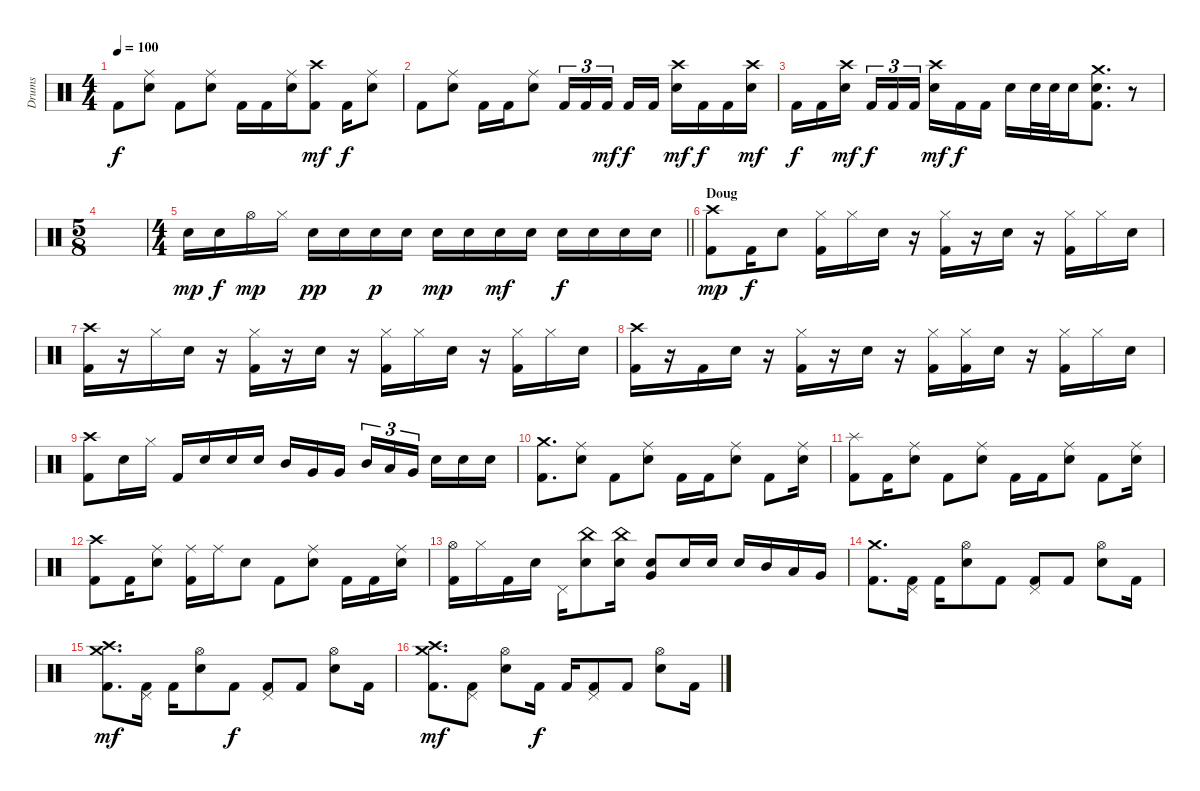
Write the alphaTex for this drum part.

\track ("Drums" "Drums") {instrument percussion}
\staff {score}
\articulation defaults
\ts (4 4)
\tempo 100
\clef neutral
\ks c "Kick (hit) 2".8{dy f}
("Ride (middle)" "Snare (hit) 2").8 "Kick (hit) 2".8 ("Ride (middle)" "Snare (hit) 2").8 "Kick (hit) 2".16 "Kick (hit) 2".16 ("Ride (middle)" "Snare (hit) 2").16 ("Crash high (hit)" "Kick (hit) 2").8{dy mf} "Kick (hit) 2".16{dy f} ("Ride (middle)" "Snare (hit) 2").8 |
"Kick (hit) 2".8 ("Ride (middle)" "Snare (hit) 2").8 "Kick (hit) 2".16 "Kick (hit) 2".16 ("Ride (middle)" "Snare (hit) 2").8 "Kick (hit) 2".16{tu (3 2)} "Kick (hit) 2".16{tu (3 2)} "Kick (hit) 2".16{tu (3 2) dy mf beam splitsecondary} "Kick (hit) 2".16{dy f} "Kick (hit) 2".16 ("Crash high (hit)" "Snare (hit) 2").16{dy mf} "Kick (hit) 2".16{dy f} "Kick (hit) 2".16 ("Crash high (hit)" "Snare (hit) 2").16{dy mf} |
"Kick (hit) 2".16{dy f} "Kick (hit) 2".16 ("Crash high (hit)" "Snare (hit) 2").16{dy mf beam splitsecondary} "Kick (hit) 2".16{tu (3 2) dy f} "Kick (hit) 2".16{tu (3 2)} "Kick (hit) 2".16{tu (3 2) beam splitsecondary} ("Crash high (hit)" "Snare (hit) 2").16{dy mf} "Kick (hit) 2".16{dy f} "Kick (hit) 2".16 "Snare (hit) 2".16 "Snare (hit) 2".32 "Snare (hit) 2".32 "Snare (hit) 2".16 ("Crash medium (hit)" "Snare (hit) 2" "Kick (hit) 2").8{d} r.8 |
\ts (5 8)
|
\ts (4 4)
\barLineRight lightlight "Snare (hit) 2".16{dy mp} "Snare (hit) 2".16{dy f} "Hi-Hat (open)".16{dy mp} "Hi-Hat (closed)".16 "Snare (hit) 2".16{dy pp} "Snare (hit) 2".16 "Snare (hit) 2".16{dy p} "Snare (hit) 2".16 "Snare (hit) 2".16{dy mp} "Snare (hit) 2".16 "Snare (hit) 2".16{dy mf} "Snare (hit) 2".16 "Snare (hit) 2".16{dy f} "Snare (hit) 2".16 "Snare (hit) 2".16 "Snare (hit) 2".16
|
\section ("" "Doug")
("Crash high (hit)" "Kick (hit) 2").8{dy mp} "Kick (hit) 2".16{dy f} "Snare (hit) 2".8 ("Hi-Hat (closed)" "Kick (hit) 2").16 "Hi-Hat (closed)".16 "Snare (hit) 2".16 r.16 ("Hi-Hat (closed)" "Kick (hit) 2").16 r.16 "Snare (hit) 2".16 r.16 ("Hi-Hat (closed)" "Kick (hit) 2").16 "Hi-Hat (closed)".16 "Snare (hit) 2".16 |
("Crash high (hit)" "Kick (hit) 2").16 r.16 "Hi-Hat (closed)".16 "Snare (hit) 2".16 r.16 ("Hi-Hat (closed)" "Kick (hit) 2").16 r.16 "Snare (hit) 2".16 r.16 ("Hi-Hat (closed)" "Kick (hit) 2").16 "Hi-Hat (closed)".16 "Snare (hit) 2".16 r.16 ("Hi-Hat (closed)" "Kick (hit) 2").16 "Hi-Hat (closed)".16 "Snare (hit) 2".16 |
("Crash high (hit)" "Kick (hit) 2").16 r.16 "Kick (hit) 2".16 "Snare (hit) 2".16 r.16 ("Hi-Hat (closed)" "Kick (hit) 2").16 r.16 "Snare (hit) 2".16 r.16 ("Hi-Hat (closed)" "Kick (hit) 2").16 ("Hi-Hat (closed)" "Kick (hit) 2").16 "Snare (hit) 2".16 r.16 ("Hi-Hat (closed)" "Kick (hit) 2").16 "Hi-Hat (closed)".16 "Snare (hit) 2".16 |
("Crash high (hit)" "Kick (hit) 2").8 "Snare (hit) 2".16 "Hi-Hat (closed)".16 "Kick (hit) 2".16 "Snare (hit) 2".16 "Snare (hit) 2".16 "Snare (hit) 2".16 "Mid Tom (hit)".16 "Very Low Tom (hit)".16 "Very Low Tom (hit)".16{beam splitsecondary} "Mid Tom (hit)".16{tu (3 2)} "Low Tom (hit)".16{tu (3 2)} "Very Low Tom (hit)".16{tu (3 2) beam splitsecondary} "Snare (hit) 2".16 "Snare (hit) 2".16 "Snare (hit) 2".16 |
("Crash medium (hit)" "Kick (hit) 2").8{d} ("Ride (middle)" "Snare (hit) 2").8 "Kick (hit) 2".8 ("Ride (middle)" "Snare (hit) 2").8 "Kick (hit) 2".16 "Kick (hit) 2".16 ("Ride (middle)" "Snare (hit) 2").8 "Kick (hit) 2".8 ("Ride (middle)" "Snare (hit) 2").16 |
("Splash (hit)" "Kick (hit) 2").8 "Kick (hit) 2".16 ("Ride (middle)" "Snare (hit) 2").8 "Kick (hit) 2".8 ("Ride (middle)" "Snare (hit) 2").8 "Kick (hit) 2".16 "Kick (hit) 2".16 ("Ride (middle)" "Snare (hit) 2").8 "Kick (hit) 2".8 ("Ride (middle)" "Snare (hit) 2").16 |
("Crash high (hit)" "Kick (hit) 2").8 "Kick (hit) 2".16 ("Ride (middle)" "Snare (hit) 2").8 ("Ride (middle)" "Kick (hit) 2").16 "Ride (middle)".16 "Snare (hit) 2".8 "Kick (hit) 2".8 ("Ride (middle)" "Snare (hit) 2").8 "Kick (hit) 2".16 "Kick (hit) 2".16 ("Ride (middle)" "Snare (hit) 2").16 |
("Hi-Hat (open)" "Kick (hit) 2").16 "Hi-Hat (closed)".16 "Kick (hit) 2".16 "Snare (hit) 2".16 "Pedal Hi-Hat (hit)".16 ("China (hit)" "Snare (hit) 2").8 ("China (hit)" "Snare (hit) 2").16 ("Snare (hit) 2" "Very Low Tom (hit)").8 "Snare (hit) 2".16 "Snare (hit) 2".16 "Snare (hit) 2".16 "Mid Tom (hit)".16 "Low Tom (hit)".16 "Very Low Tom (hit)".16 |
("Crash medium (hit)" "Kick (hit) 2").8{d} ("Pedal Hi-Hat (hit)" "Kick (hit) 2").16 "Kick (hit) 2".16 ("Hi-Hat (open)" "Snare (hit) 2").8 "Kick (hit) 2".8 ("Pedal Hi-Hat (hit)" "Kick (hit) 2").8 "Kick (hit) 2".8 ("Hi-Hat (open)" "Snare (hit) 2").8 "Kick (hit) 2".16 |
("Crash high (hit)" "Crash medium (hit)" "Kick (hit) 2").8{d dy mf} ("Pedal Hi-Hat (hit)" "Kick (hit) 2").16 "Kick (hit) 2".16 ("Hi-Hat (open)" "Snare (hit) 2").8 "Kick (hit) 2".8{dy f} ("Pedal Hi-Hat (hit)" "Kick (hit) 2").8 "Kick (hit) 2".8 ("Hi-Hat (open)" "Snare (hit) 2").8 "Kick (hit) 2".16 |
("Crash high (hit)" "Crash medium (hit)" "Kick (hit) 2").8{d dy mf} ("Pedal Hi-Hat (hit)" "Kick (hit) 2").8 ("Hi-Hat (open)" "Snare (hit) 2").8 "Kick (hit) 2".16{dy f} "Kick (hit) 2".16 ("Pedal Hi-Hat (hit)" "Kick (hit) 2").8 "Kick (hit) 2".8 ("Hi-Hat (open)" "Snare (hit) 2").8 "Kick (hit) 2".16
